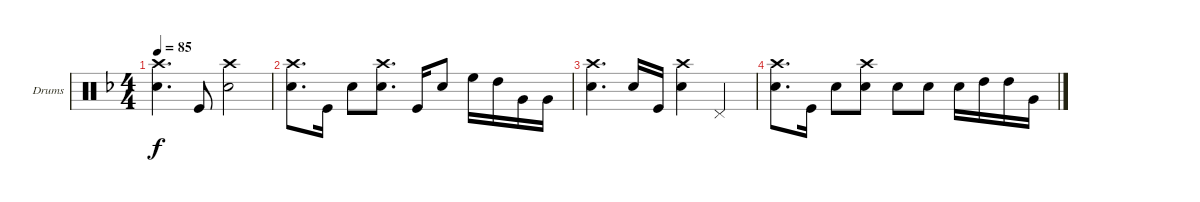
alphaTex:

\defaultSystemsLayout 4
\bracketExtendMode groupsimilarinstruments
\firstSystemTrackNameOrientation horizontal
\otherSystemsTrackNameOrientation horizontal
\track ("Drumkit" "Drums") {instrument percussion}
\staff {score}
\articulation defaults
\ts (4 4)
\tempo 85
\clef neutral
\ks dminor
("Snare (hit) 2" "Crash high (hit)").4{d dy f} "Kick (hit)".8 ("Snare (hit) 2" "Crash high (hit)").2 |
("Snare (hit) 2" "Crash high (hit)").8{d} "Kick (hit)".16 "Snare (hit) 2".8 ("Snare (hit) 2" "Crash high (hit)").8{d} "Kick (hit)".16 "Snare (hit) 2".8 "High Floor Tom (hit)".16 "High Tom (hit)".16 "Very Low Tom (hit)".16 "Very Low Tom (hit)".16 |
("Snare (hit) 2" "Crash high (hit)").4{d} "Snare (hit) 2".16 "Kick (hit)".16 ("Snare (hit) 2" "Crash high (hit)").4 "Pedal Hi-Hat (hit)".4 |
("Snare (hit) 2" "Crash high (hit)").8{d} "Kick (hit)".16 "Snare (hit) 2".8 ("Snare (hit) 2" "Crash high (hit)").8 "Snare (hit) 2".8 "Snare (hit) 2".8 "Snare (hit) 2".16 "High Tom (hit)".16 "High Tom (hit)".16 "Very Low Tom (hit)".16
